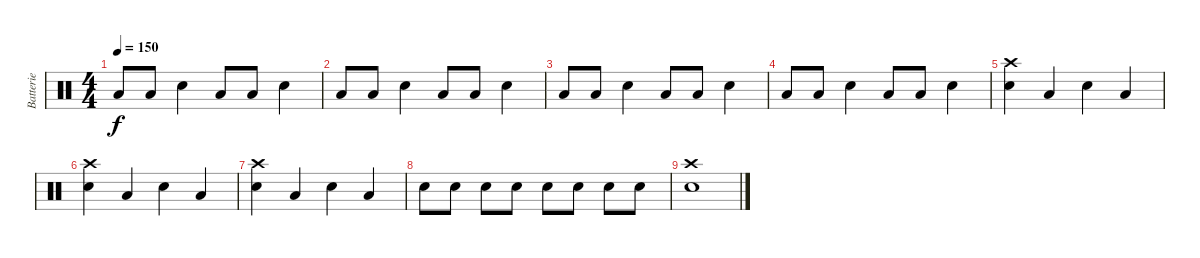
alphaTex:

\track ("Batterie" "Batterie") {instrument percussion}
\staff {score}
\articulation defaults
\ts (4 4)
\tempo 150
\clef neutral
\ks c "Low Tom (hit)".8{dy f} "Low Tom (hit)".8 "Snare (hit) 2".4 "Low Tom (hit)".8 "Low Tom (hit)".8 "Snare (hit) 2".4
|
"Low Tom (hit)".8 "Low Tom (hit)".8 "Snare (hit) 2".4 "Low Tom (hit)".8 "Low Tom (hit)".8 "Snare (hit) 2".4 |
"Low Tom (hit)".8 "Low Tom (hit)".8 "Snare (hit) 2".4 "Low Tom (hit)".8 "Low Tom (hit)".8 "Snare (hit) 2".4 |
"Low Tom (hit)".8 "Low Tom (hit)".8 "Snare (hit) 2".4 "Low Tom (hit)".8 "Low Tom (hit)".8 "Snare (hit) 2".4 |
("Crash high (hit)" "Snare (hit) 2").4 "Low Tom (hit)".4 "Snare (hit) 2".4 "Low Tom (hit)".4 |
("Crash high (hit)" "Snare (hit) 2").4 "Low Tom (hit)".4 "Snare (hit) 2".4 "Low Tom (hit)".4 |
("Crash high (hit)" "Snare (hit) 2").4 "Low Tom (hit)".4 "Snare (hit) 2".4 "Low Tom (hit)".4 |
"Snare (hit) 2".8 "Snare (hit) 2".8 "Snare (hit) 2".8 "Snare (hit) 2".8 "Snare (hit) 2".8 "Snare (hit) 2".8 "Snare (hit) 2".8 "Snare (hit) 2".8 |
("Crash high (hit)" "Snare (hit) 2").1
